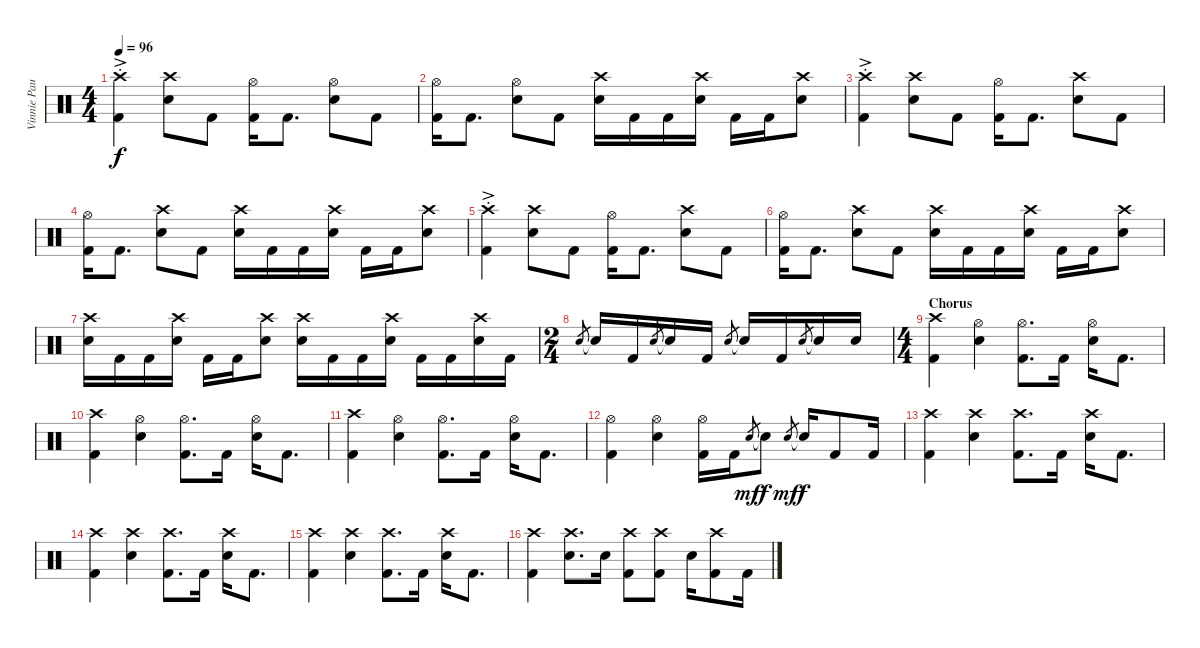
\track ("Vinnie Paul" "Vinnie Pau") {instrument percussion}
\staff {score}
\articulation defaults
\ts (4 4)
\tempo 96
\clef neutral
\ks c
("Crash high (hit)"{ac st} "Kick (hit) 2"{ac st}).4{dy f} ("Snare (hit) 2" "Crash high (hit)").8 "Kick (hit) 2".8 ("Kick (hit) 2" "Hi-Hat (open)").16 "Kick (hit) 2".8{d} ("Snare (hit) 2" "Hi-Hat (open)").8 "Kick (hit) 2".8 |
("Kick (hit) 2" "Hi-Hat (open)").16 "Kick (hit) 2".8{d} ("Snare (hit) 2" "Hi-Hat (open)").8 "Kick (hit) 2".8 ("Crash high (hit)" "Snare (hit) 2").16 "Kick (hit) 2".16 "Kick (hit) 2".16 ("Crash high (hit)" "Snare (hit) 2").16 "Kick (hit) 2".16 "Kick (hit) 2".16 ("Crash high (hit)" "Snare (hit) 2").8 |
("Crash high (hit)"{ac st} "Kick (hit) 2"{ac st}).4 ("Snare (hit) 2" "Crash high (hit)").8 "Kick (hit) 2".8 ("Kick (hit) 2" "Hi-Hat (open)").16 "Kick (hit) 2".8{d} ("Snare (hit) 2" "Crash high (hit)").8 "Kick (hit) 2".8 |
("Kick (hit) 2" "Hi-Hat (open)").16 "Kick (hit) 2".8{d} ("Crash high (hit)" "Snare (hit) 2").8 "Kick (hit) 2".8 ("Crash high (hit)" "Snare (hit) 2").16 "Kick (hit) 2".16 "Kick (hit) 2".16 ("Crash high (hit)" "Snare (hit) 2").16 "Kick (hit) 2".16 "Kick (hit) 2".16 ("Crash high (hit)" "Snare (hit) 2").8 |
("Crash high (hit)"{ac st} "Kick (hit) 2"{ac st}).4 ("Snare (hit) 2" "Crash high (hit)").8 "Kick (hit) 2".8 ("Kick (hit) 2" "Hi-Hat (open)").16 "Kick (hit) 2".8{d} ("Snare (hit) 2" "Crash high (hit)").8 "Kick (hit) 2".8 |
("Kick (hit) 2" "Hi-Hat (open)").16 "Kick (hit) 2".8{d} ("Crash high (hit)" "Snare (hit) 2").8 "Kick (hit) 2".8 ("Crash high (hit)" "Snare (hit) 2").16 "Kick (hit) 2".16 "Kick (hit) 2".16 ("Crash high (hit)" "Snare (hit) 2").16 "Kick (hit) 2".16 "Kick (hit) 2".16 ("Crash high (hit)" "Snare (hit) 2").8 |
("Crash high (hit)" "Snare (hit) 2").16 "Kick (hit) 2".16 "Kick (hit) 2".16 ("Crash high (hit)" "Snare (hit) 2").16 "Kick (hit) 2".16 "Kick (hit) 2".16 ("Crash high (hit)" "Snare (hit) 2").8 ("Crash high (hit)" "Snare (hit) 2").16 "Kick (hit) 2".16 "Kick (hit) 2".16 ("Crash high (hit)" "Snare (hit) 2").16 "Kick (hit) 2".16 "Kick (hit) 2".16 ("Crash high (hit)" "Snare (hit) 2").16 "Kick (hit) 2".16 |
\ts (2 4)
"Snare (hit)".8{gr} "Snare (hit) 2"{t}.16 "Kick (hit) 2".16 "Snare (hit)".8{gr} "Snare (hit) 2"{t}.16 "Kick (hit) 2".16 "Snare (hit)".8{gr} "Snare (hit) 2"{t}.16 "Kick (hit) 2".16 "Snare (hit)".8{gr} "Snare (hit) 2"{t}.16 "Snare (hit) 2".16 |
\ts (4 4)
\section ("" "Chorus")
("Crash high (hit)" "Kick (hit) 2").4 ("Snare (hit) 2" "Hi-Hat (open)").4 ("Kick (hit) 2" "Hi-Hat (open)").8{d} "Kick (hit) 2".16 ("Snare (hit) 2" "Hi-Hat (open)").16 "Kick (hit) 2".8{d} |
("Crash high (hit)" "Kick (hit) 2").4 ("Snare (hit) 2" "Hi-Hat (open)").4 ("Kick (hit) 2" "Hi-Hat (open)").8{d} "Kick (hit) 2".16 ("Snare (hit) 2" "Hi-Hat (open)").16 "Kick (hit) 2".8{d} |
("Crash high (hit)" "Kick (hit) 2").4 ("Snare (hit) 2" "Hi-Hat (open)").4 ("Kick (hit) 2" "Hi-Hat (open)").8{d} "Kick (hit) 2".16 ("Snare (hit) 2" "Hi-Hat (open)").16 "Kick (hit) 2".8{d} |
("Kick (hit) 2" "Hi-Hat (open)").4 ("Snare (hit) 2" "Hi-Hat (open)").4 ("Kick (hit) 2" "Hi-Hat (open)").16 "Kick (hit) 2".16 "Snare (hit)".8{gr dy mf} "Snare (hit) 2"{t}.8{dy f} "Snare (hit)".8{gr dy mf} "Snare (hit) 2"{t}.16{dy f} "Kick (hit) 2".8 "Kick (hit) 2".16 |
("Crash high (hit)" "Kick (hit) 2").4 ("Crash high (hit)" "Snare (hit) 2").4 ("Crash high (hit)" "Kick (hit) 2").8{d} "Kick (hit) 2".16 ("Crash high (hit)" "Snare (hit) 2").16 "Kick (hit) 2".8{d} |
("Crash high (hit)" "Kick (hit) 2").4 ("Crash high (hit)" "Snare (hit) 2").4 ("Crash high (hit)" "Kick (hit) 2").8{d} "Kick (hit) 2".16 ("Crash high (hit)" "Snare (hit) 2").16 "Kick (hit) 2".8{d} |
("Crash high (hit)" "Kick (hit) 2").4 ("Crash high (hit)" "Snare (hit) 2").4 ("Crash high (hit)" "Kick (hit) 2").8{d} "Kick (hit) 2".16 ("Crash high (hit)" "Snare (hit) 2").16 "Kick (hit) 2".8{d} |
("Crash high (hit)" "Kick (hit) 2").4 ("Crash high (hit)" "Snare (hit) 2").8{d} "Snare (hit) 2".16 ("Crash high (hit)" "Kick (hit) 2").8 ("Crash high (hit)" "Kick (hit) 2").8 "Snare (hit) 2".16 ("Crash high (hit)" "Kick (hit) 2").8 "Kick (hit) 2".16
